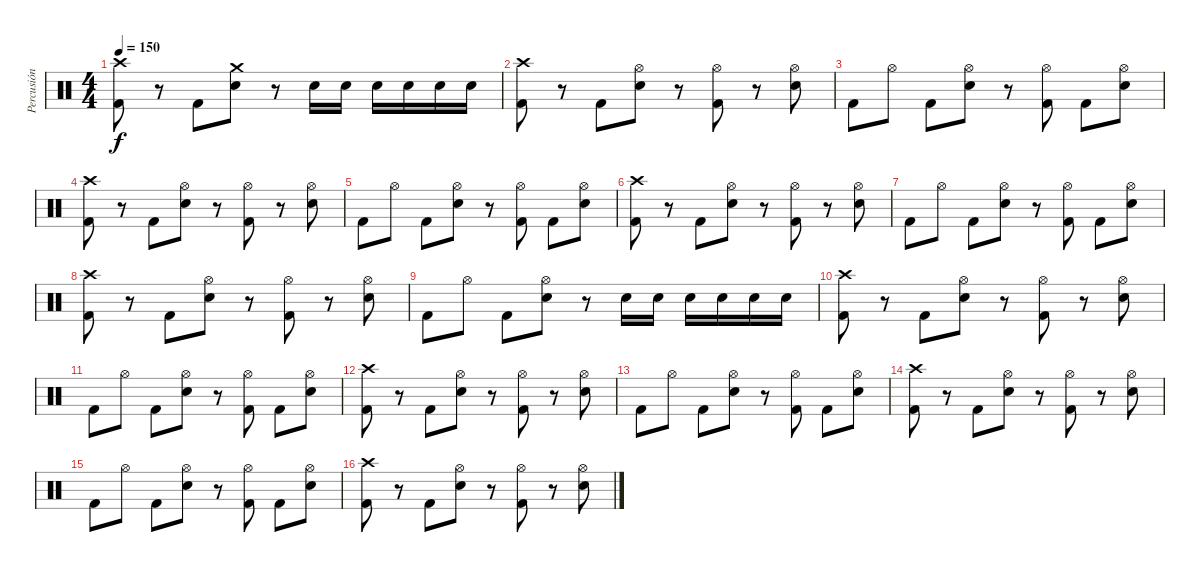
\track ("Percusión" "Percusión") {instrument percussion}
\staff {score}
\articulation defaults
\ts (4 4)
\tempo 150
\clef neutral
\ks c
("Crash high (hit)" "Kick (hit) 2").8{dy f} r.8 "Kick (hit) 2".8 ("Crash medium (hit)" "Electric Snare (hit)").8 r.8 "Electric Snare (hit)".16 "Electric Snare (hit)".16 "Electric Snare (hit)".16 "Electric Snare (hit)".16 "Electric Snare (hit)".16 "Electric Snare (hit)".16 |
("Crash high (hit)" "Kick (hit) 2").8 r.8 "Kick (hit) 2".8 ("Hi-Hat (open)" "Electric Snare (hit)").8 r.8 ("Hi-Hat (open)" "Kick (hit) 2").8 r.8 ("Hi-Hat (open)" "Electric Snare (hit)").8 |
"Kick (hit) 2".8 "Hi-Hat (open)".8 "Kick (hit) 2".8 ("Hi-Hat (open)" "Electric Snare (hit)").8 r.8 ("Hi-Hat (open)" "Kick (hit) 2").8 "Kick (hit) 2".8 ("Hi-Hat (open)" "Electric Snare (hit)").8 |
("Crash high (hit)" "Kick (hit) 2").8 r.8 "Kick (hit) 2".8 ("Hi-Hat (open)" "Electric Snare (hit)").8 r.8 ("Hi-Hat (open)" "Kick (hit) 2").8 r.8 ("Hi-Hat (open)" "Electric Snare (hit)").8 |
"Kick (hit) 2".8 "Hi-Hat (open)".8 "Kick (hit) 2".8 ("Hi-Hat (open)" "Electric Snare (hit)").8 r.8 ("Hi-Hat (open)" "Kick (hit) 2").8 "Kick (hit) 2".8 ("Hi-Hat (open)" "Electric Snare (hit)").8 |
("Crash high (hit)" "Kick (hit) 2").8 r.8 "Kick (hit) 2".8 ("Hi-Hat (open)" "Electric Snare (hit)").8 r.8 ("Hi-Hat (open)" "Kick (hit) 2").8 r.8 ("Hi-Hat (open)" "Electric Snare (hit)").8 |
"Kick (hit) 2".8 "Hi-Hat (open)".8 "Kick (hit) 2".8 ("Hi-Hat (open)" "Electric Snare (hit)").8 r.8 ("Hi-Hat (open)" "Kick (hit) 2").8 "Kick (hit) 2".8 ("Hi-Hat (open)" "Electric Snare (hit)").8 |
("Crash high (hit)" "Kick (hit) 2").8 r.8 "Kick (hit) 2".8 ("Hi-Hat (open)" "Electric Snare (hit)").8 r.8 ("Hi-Hat (open)" "Kick (hit) 2").8 r.8 ("Hi-Hat (open)" "Electric Snare (hit)").8 |
"Kick (hit) 2".8 "Hi-Hat (open)".8 "Kick (hit) 2".8 ("Hi-Hat (open)" "Electric Snare (hit)").8 r.8 "Electric Snare (hit)".16 "Electric Snare (hit)".16 "Electric Snare (hit)".16 "Electric Snare (hit)".16 "Electric Snare (hit)".16 "Electric Snare (hit)".16 |
("Crash high (hit)" "Kick (hit) 2").8 r.8 "Kick (hit) 2".8 ("Hi-Hat (open)" "Electric Snare (hit)").8 r.8 ("Hi-Hat (open)" "Kick (hit) 2").8 r.8 ("Hi-Hat (open)" "Electric Snare (hit)").8 |
"Kick (hit) 2".8 "Hi-Hat (open)".8 "Kick (hit) 2".8 ("Hi-Hat (open)" "Electric Snare (hit)").8 r.8 ("Hi-Hat (open)" "Kick (hit) 2").8 "Kick (hit) 2".8 ("Hi-Hat (open)" "Electric Snare (hit)").8 |
("Crash high (hit)" "Kick (hit) 2").8 r.8 "Kick (hit) 2".8 ("Hi-Hat (open)" "Electric Snare (hit)").8 r.8 ("Hi-Hat (open)" "Kick (hit) 2").8 r.8 ("Hi-Hat (open)" "Electric Snare (hit)").8 |
"Kick (hit) 2".8 "Hi-Hat (open)".8 "Kick (hit) 2".8 ("Hi-Hat (open)" "Electric Snare (hit)").8 r.8 ("Hi-Hat (open)" "Kick (hit) 2").8 "Kick (hit) 2".8 ("Hi-Hat (open)" "Electric Snare (hit)").8 |
("Crash high (hit)" "Kick (hit) 2").8 r.8 "Kick (hit) 2".8 ("Hi-Hat (open)" "Electric Snare (hit)").8 r.8 ("Hi-Hat (open)" "Kick (hit) 2").8 r.8 ("Hi-Hat (open)" "Electric Snare (hit)").8 |
"Kick (hit) 2".8 "Hi-Hat (open)".8 "Kick (hit) 2".8 ("Hi-Hat (open)" "Electric Snare (hit)").8 r.8 ("Hi-Hat (open)" "Kick (hit) 2").8 "Kick (hit) 2".8 ("Hi-Hat (open)" "Electric Snare (hit)").8 |
("Crash high (hit)" "Kick (hit) 2").8 r.8 "Kick (hit) 2".8 ("Hi-Hat (open)" "Electric Snare (hit)").8 r.8 ("Hi-Hat (open)" "Kick (hit) 2").8 r.8 ("Hi-Hat (open)" "Electric Snare (hit)").8
